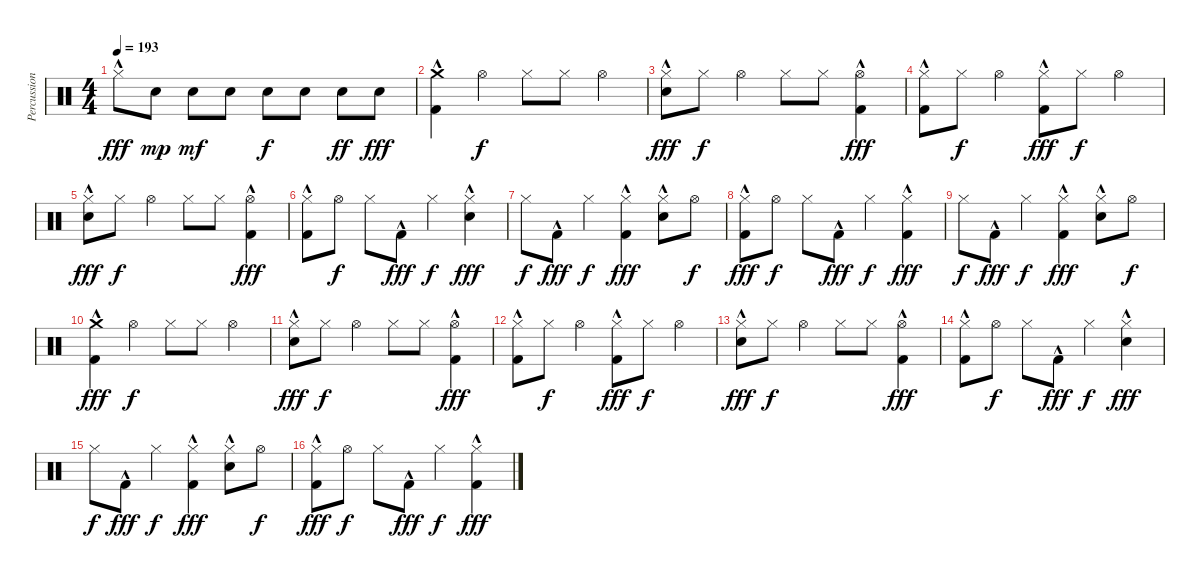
\track ("Percussion" "Percussion") {instrument percussion}
\staff {score}
\articulation defaults
\ts (4 4)
\tempo 193
\clef neutral
\ks c "Hi-Hat (closed)"{hac}.8{dy fff} "Electric Snare (hit)".8{dy mp} "Electric Snare (hit)".8{dy mf} "Electric Snare (hit)".8 "Electric Snare (hit)".8{dy f} "Electric Snare (hit)".8 "Electric Snare (hit)".8{dy ff} "Electric Snare (hit)".8{dy fff}
|
("Crash medium (hit)"{hac} "Kick (hit) 2"{hac}).4 "Hi-Hat (open)".4{dy f} "Hi-Hat (closed)".8 "Hi-Hat (closed)".8 "Hi-Hat (open)".4 |
("Hi-Hat (closed)" "Electric Snare (hit)"{hac}).8{dy fff} "Hi-Hat (closed)".8{dy f} "Hi-Hat (open)".4 "Hi-Hat (closed)".8 "Hi-Hat (closed)".8 ("Hi-Hat (open)" "Kick (hit) 2"{hac}).4{dy fff} |
("Hi-Hat (closed)" "Kick (hit) 2"{hac}).8 "Hi-Hat (closed)".8{dy f} "Hi-Hat (open)".4 ("Hi-Hat (closed)" "Kick (hit) 2"{hac}).8{dy fff} "Hi-Hat (closed)".8{dy f} "Hi-Hat (open)".4 |
("Hi-Hat (closed)" "Electric Snare (hit)"{hac}).8{dy fff} "Hi-Hat (closed)".8{dy f} "Hi-Hat (open)".4 "Hi-Hat (closed)".8 "Hi-Hat (closed)".8 ("Hi-Hat (open)" "Kick (hit) 2"{hac}).4{dy fff} |
("Hi-Hat (closed)" "Kick (hit) 2"{hac}).8 "Hi-Hat (open)".8{dy f} "Hi-Hat (closed)".8 "Kick (hit) 2"{hac}.8{dy fff} "Hi-Hat (closed)".4{dy f} ("Hi-Hat (closed)" "Electric Snare (hit)"{hac}).4{dy fff} |
"Hi-Hat (closed)".8{dy f} "Kick (hit) 2"{hac}.8{dy fff} "Hi-Hat (closed)".4{dy f} ("Hi-Hat (closed)" "Kick (hit) 2"{hac}).4{dy fff} ("Hi-Hat (closed)" "Electric Snare (hit)"{hac}).8 "Hi-Hat (open)".8{dy f} |
("Hi-Hat (closed)" "Kick (hit) 2"{hac}).8{dy fff} "Hi-Hat (open)".8{dy f} "Hi-Hat (closed)".8 "Kick (hit) 2"{hac}.8{dy fff} "Hi-Hat (closed)".4{dy f} ("Hi-Hat (closed)" "Kick (hit) 2"{hac}).4{dy fff} |
"Hi-Hat (closed)".8{dy f} "Kick (hit) 2"{hac}.8{dy fff} "Hi-Hat (closed)".4{dy f} ("Hi-Hat (closed)" "Kick (hit) 2"{hac}).4{dy fff} ("Hi-Hat (closed)" "Electric Snare (hit)"{hac}).8 "Hi-Hat (open)".8{dy f} |
("Crash medium (hit)"{hac} "Kick (hit) 2"{hac}).4{dy fff} "Hi-Hat (open)".4{dy f} "Hi-Hat (closed)".8 "Hi-Hat (closed)".8 "Hi-Hat (open)".4 |
("Hi-Hat (closed)" "Electric Snare (hit)"{hac}).8{dy fff} "Hi-Hat (closed)".8{dy f} "Hi-Hat (open)".4 "Hi-Hat (closed)".8 "Hi-Hat (closed)".8 ("Hi-Hat (open)" "Kick (hit) 2"{hac}).4{dy fff} |
("Hi-Hat (closed)" "Kick (hit) 2"{hac}).8 "Hi-Hat (closed)".8{dy f} "Hi-Hat (open)".4 ("Hi-Hat (closed)" "Kick (hit) 2"{hac}).8{dy fff} "Hi-Hat (closed)".8{dy f} "Hi-Hat (open)".4 |
("Hi-Hat (closed)" "Electric Snare (hit)"{hac}).8{dy fff} "Hi-Hat (closed)".8{dy f} "Hi-Hat (open)".4 "Hi-Hat (closed)".8 "Hi-Hat (closed)".8 ("Hi-Hat (open)" "Kick (hit) 2"{hac}).4{dy fff} |
("Hi-Hat (closed)" "Kick (hit) 2"{hac}).8 "Hi-Hat (open)".8{dy f} "Hi-Hat (closed)".8 "Kick (hit) 2"{hac}.8{dy fff} "Hi-Hat (closed)".4{dy f} ("Hi-Hat (closed)" "Electric Snare (hit)"{hac}).4{dy fff} |
"Hi-Hat (closed)".8{dy f} "Kick (hit) 2"{hac}.8{dy fff} "Hi-Hat (closed)".4{dy f} ("Hi-Hat (closed)" "Kick (hit) 2"{hac}).4{dy fff} ("Hi-Hat (closed)" "Electric Snare (hit)"{hac}).8 "Hi-Hat (open)".8{dy f} |
("Hi-Hat (closed)" "Kick (hit) 2"{hac}).8{dy fff} "Hi-Hat (open)".8{dy f} "Hi-Hat (closed)".8 "Kick (hit) 2"{hac}.8{dy fff} "Hi-Hat (closed)".4{dy f} ("Hi-Hat (closed)" "Kick (hit) 2"{hac}).4{dy fff}
